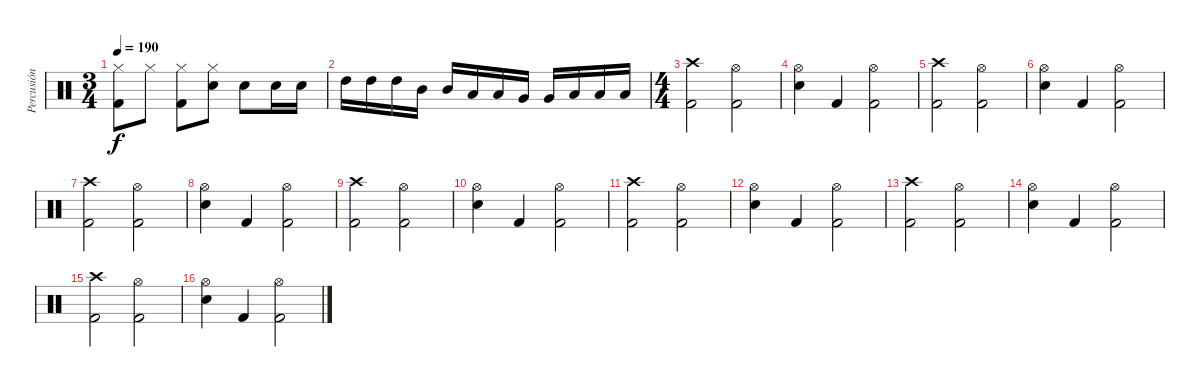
\track ("Percusión" "Percusión") {instrument percussion}
\staff {score}
\articulation defaults
\ts (3 4)
\tempo 190
\clef neutral
\ks c
("Hi-Hat (closed)" "Kick (hit) 2").8{dy f} "Hi-Hat (closed)".8 ("Hi-Hat (closed)" "Kick (hit) 2").8 ("Hi-Hat (closed)" "Snare (hit) 2").8 "Snare (hit) 2".8 "Snare (hit) 2".16 "Snare (hit) 2".16 |
"High Tom (hit)".16 "High Tom (hit)".16 "High Tom (hit)".16 "Mid Tom (hit)".16 "Mid Tom (hit)".16 "Low Tom (hit)".16 "Low Tom (hit)".16 "Very Low Tom (hit)".16 "Very Low Tom (hit)".16 "Low Floor Tom (hit)".16 "Low Floor Tom (hit)".16 "Low Floor Tom (hit)".16 |
\ts (4 4)
("Crash high (hit)" "Kick (hit) 2").2 ("Hi-Hat (open)" "Kick (hit) 2").2 |
("Hi-Hat (open)" "Snare (hit) 2").4 "Kick (hit) 2".4 ("Hi-Hat (open)" "Kick (hit) 2").2 |
("Crash high (hit)" "Kick (hit) 2").2 ("Hi-Hat (open)" "Kick (hit) 2").2 |
("Hi-Hat (open)" "Snare (hit) 2").4 "Kick (hit) 2".4 ("Hi-Hat (open)" "Kick (hit) 2").2 |
("Crash high (hit)" "Kick (hit) 2").2 ("Hi-Hat (open)" "Kick (hit) 2").2 |
("Hi-Hat (open)" "Snare (hit) 2").4 "Kick (hit) 2".4 ("Hi-Hat (open)" "Kick (hit) 2").2 |
("Crash high (hit)" "Kick (hit) 2").2 ("Hi-Hat (open)" "Kick (hit) 2").2 |
("Hi-Hat (open)" "Snare (hit) 2").4 "Kick (hit) 2".4 ("Hi-Hat (open)" "Kick (hit) 2").2 |
("Crash high (hit)" "Kick (hit) 2").2 ("Hi-Hat (open)" "Kick (hit) 2").2 |
("Hi-Hat (open)" "Snare (hit) 2").4 "Kick (hit) 2".4 ("Hi-Hat (open)" "Kick (hit) 2").2 |
("Crash high (hit)" "Kick (hit) 2").2 ("Hi-Hat (open)" "Kick (hit) 2").2 |
("Hi-Hat (open)" "Snare (hit) 2").4 "Kick (hit) 2".4 ("Hi-Hat (open)" "Kick (hit) 2").2 |
("Crash high (hit)" "Kick (hit) 2").2 ("Hi-Hat (open)" "Kick (hit) 2").2 |
("Hi-Hat (open)" "Snare (hit) 2").4 "Kick (hit) 2".4 ("Hi-Hat (open)" "Kick (hit) 2").2
